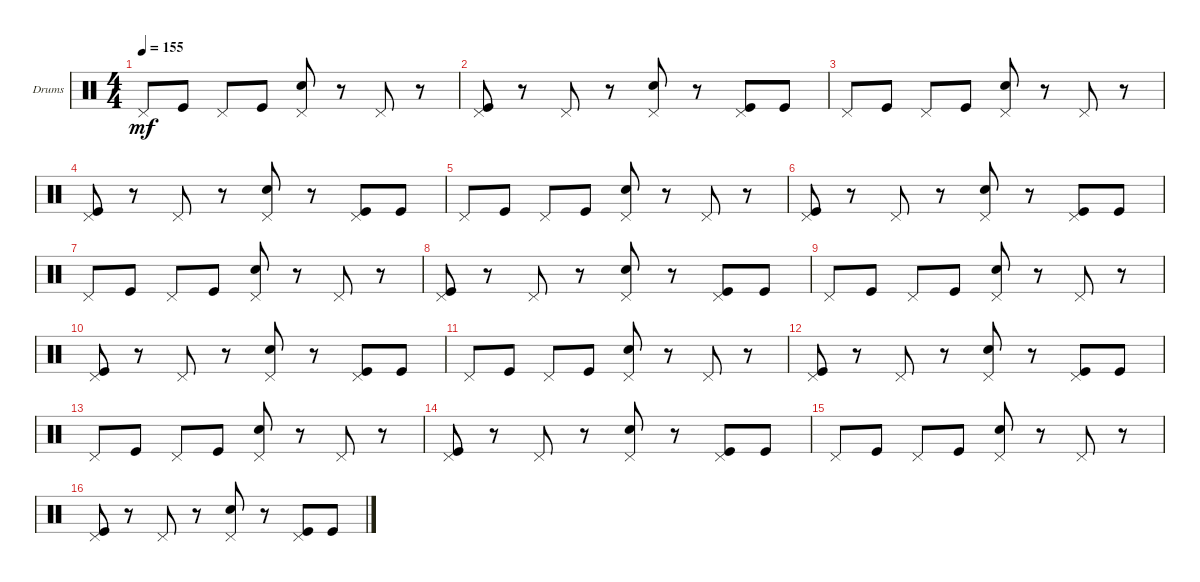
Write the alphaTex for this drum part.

\defaultSystemsLayout 4
\bracketExtendMode groupsimilarinstruments
\firstSystemTrackNameOrientation horizontal
\otherSystemsTrackNameOrientation horizontal
\track ("Drumkit" "Drums") {instrument percussion}
\staff {score}
\articulation defaults
\ts (4 4)
\tempo 155
\clef neutral
\scale
0.333333
\ks c "Pedal Hi-Hat (hit)".8{dy mf} "Kick (hit)".8 "Pedal Hi-Hat (hit)".8 "Kick (hit)".8
("Pedal Hi-Hat (hit)" "Snare (hit) 2").8 r.8 "Pedal Hi-Hat (hit)".8 r.8 |
\scale
0.333333 ("Kick (hit)" "Pedal Hi-Hat (hit)").8 r.8 "Pedal Hi-Hat (hit)".8 r.8 ("Pedal Hi-Hat (hit)" "Snare (hit) 2").8 r.8 ("Kick (hit)" "Pedal Hi-Hat (hit)").8 "Kick (hit)".8 |
"Pedal Hi-Hat (hit)".8 "Kick (hit)".8 "Pedal Hi-Hat (hit)".8 "Kick (hit)".8 ("Pedal Hi-Hat (hit)" "Snare (hit) 2").8 r.8 "Pedal Hi-Hat (hit)".8 r.8 |
("Kick (hit)" "Pedal Hi-Hat (hit)").8 r.8 "Pedal Hi-Hat (hit)".8 r.8 ("Pedal Hi-Hat (hit)" "Snare (hit) 2").8 r.8 ("Kick (hit)" "Pedal Hi-Hat (hit)").8 "Kick (hit)".8 |
"Pedal Hi-Hat (hit)".8 "Kick (hit)".8 "Pedal Hi-Hat (hit)".8 "Kick (hit)".8 ("Pedal Hi-Hat (hit)" "Snare (hit) 2").8 r.8 "Pedal Hi-Hat (hit)".8 r.8 |
("Kick (hit)" "Pedal Hi-Hat (hit)").8 r.8 "Pedal Hi-Hat (hit)".8 r.8 ("Pedal Hi-Hat (hit)" "Snare (hit) 2").8 r.8 ("Kick (hit)" "Pedal Hi-Hat (hit)").8 "Kick (hit)".8 |
"Pedal Hi-Hat (hit)".8 "Kick (hit)".8 "Pedal Hi-Hat (hit)".8 "Kick (hit)".8 ("Pedal Hi-Hat (hit)" "Snare (hit) 2").8 r.8 "Pedal Hi-Hat (hit)".8 r.8 |
("Kick (hit)" "Pedal Hi-Hat (hit)").8 r.8 "Pedal Hi-Hat (hit)".8 r.8 ("Pedal Hi-Hat (hit)" "Snare (hit) 2").8 r.8 ("Kick (hit)" "Pedal Hi-Hat (hit)").8 "Kick (hit)".8 |
"Pedal Hi-Hat (hit)".8 "Kick (hit)".8 "Pedal Hi-Hat (hit)".8 "Kick (hit)".8 ("Pedal Hi-Hat (hit)" "Snare (hit) 2").8 r.8 "Pedal Hi-Hat (hit)".8 r.8 |
("Kick (hit)" "Pedal Hi-Hat (hit)").8 r.8 "Pedal Hi-Hat (hit)".8 r.8 ("Pedal Hi-Hat (hit)" "Snare (hit) 2").8 r.8 ("Kick (hit)" "Pedal Hi-Hat (hit)").8 "Kick (hit)".8 |
"Pedal Hi-Hat (hit)".8 "Kick (hit)".8 "Pedal Hi-Hat (hit)".8 "Kick (hit)".8 ("Pedal Hi-Hat (hit)" "Snare (hit) 2").8 r.8 "Pedal Hi-Hat (hit)".8 r.8 |
("Kick (hit)" "Pedal Hi-Hat (hit)").8 r.8 "Pedal Hi-Hat (hit)".8 r.8 ("Pedal Hi-Hat (hit)" "Snare (hit) 2").8 r.8 ("Kick (hit)" "Pedal Hi-Hat (hit)").8 "Kick (hit)".8 |
"Pedal Hi-Hat (hit)".8 "Kick (hit)".8 "Pedal Hi-Hat (hit)".8 "Kick (hit)".8 ("Pedal Hi-Hat (hit)" "Snare (hit) 2").8 r.8 "Pedal Hi-Hat (hit)".8 r.8 |
("Kick (hit)" "Pedal Hi-Hat (hit)").8 r.8 "Pedal Hi-Hat (hit)".8 r.8 ("Pedal Hi-Hat (hit)" "Snare (hit) 2").8 r.8 ("Kick (hit)" "Pedal Hi-Hat (hit)").8 "Kick (hit)".8 |
"Pedal Hi-Hat (hit)".8 "Kick (hit)".8 "Pedal Hi-Hat (hit)".8 "Kick (hit)".8 ("Pedal Hi-Hat (hit)" "Snare (hit) 2").8 r.8 "Pedal Hi-Hat (hit)".8 r.8 |
("Kick (hit)" "Pedal Hi-Hat (hit)").8 r.8 "Pedal Hi-Hat (hit)".8 r.8 ("Pedal Hi-Hat (hit)" "Snare (hit) 2").8 r.8 ("Kick (hit)" "Pedal Hi-Hat (hit)").8 "Kick (hit)".8
